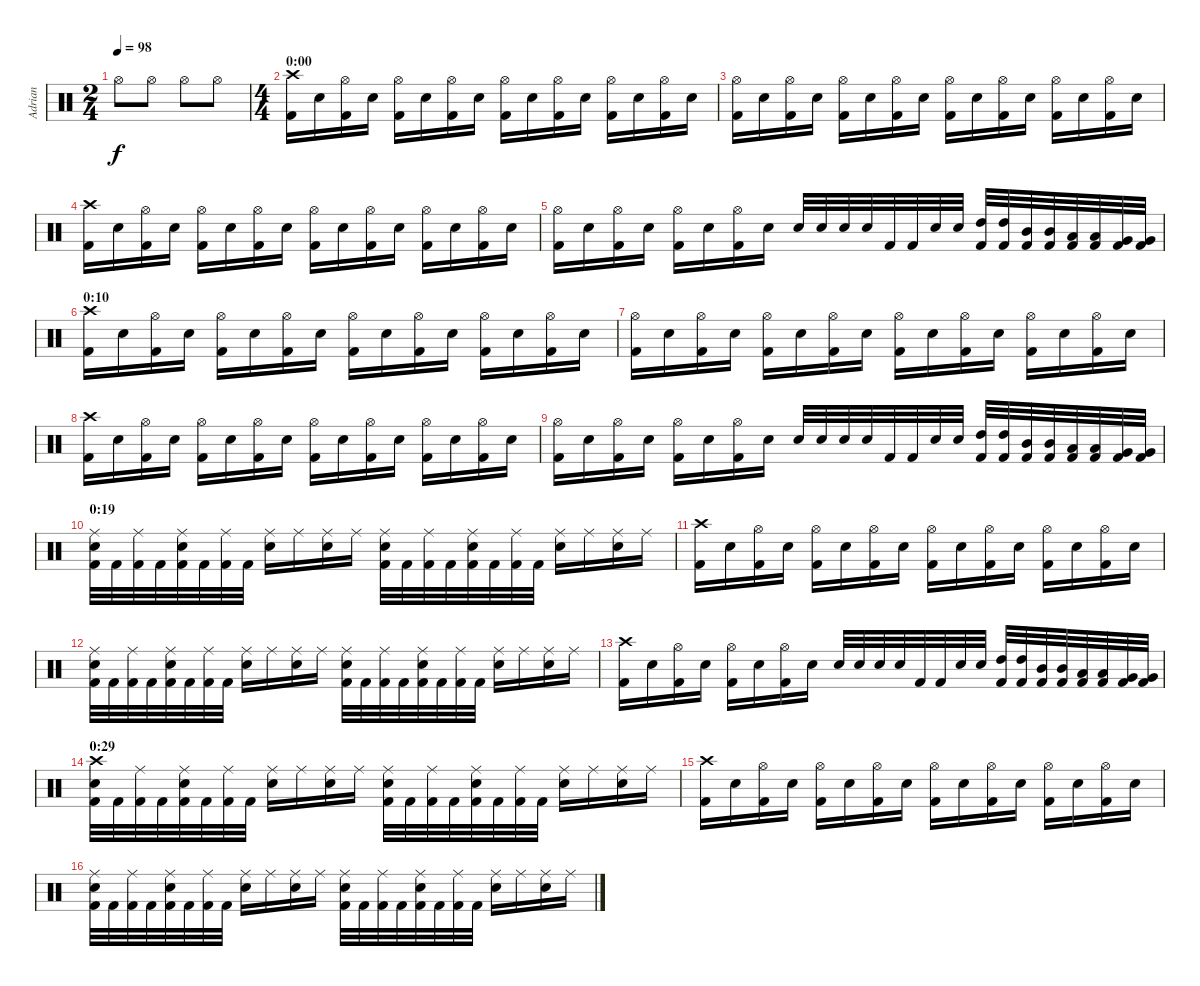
\track ("Adrian" "Adrian") {instrument percussion}
\staff {score}
\articulation defaults
\ts (2 4)
\tempo 98
\clef neutral
\ks c "Hi-Hat (open)".8{dy f} "Hi-Hat (open)".8 "Hi-Hat (open)".8 "Hi-Hat (open)".8
|
\ts (4 4)
\section ("" "0:00")
("Kick (hit) 2" "Crash high (hit)").16 "Snare (hit) 2".16 ("Kick (hit) 2" "Hi-Hat (open)").16 "Snare (hit) 2".16 ("Kick (hit) 2" "Hi-Hat (open)").16 "Snare (hit) 2".16 ("Kick (hit) 2" "Hi-Hat (open)").16 "Snare (hit) 2".16 ("Kick (hit) 2" "Hi-Hat (open)").16 "Snare (hit) 2".16 ("Kick (hit) 2" "Hi-Hat (open)").16 "Snare (hit) 2".16 ("Kick (hit) 2" "Hi-Hat (open)").16 "Snare (hit) 2".16 ("Kick (hit) 2" "Hi-Hat (open)").16 "Snare (hit) 2".16 |
("Kick (hit) 2" "Hi-Hat (open)").16 "Snare (hit) 2".16 ("Kick (hit) 2" "Hi-Hat (open)").16 "Snare (hit) 2".16 ("Kick (hit) 2" "Hi-Hat (open)").16 "Snare (hit) 2".16 ("Kick (hit) 2" "Hi-Hat (open)").16 "Snare (hit) 2".16 ("Kick (hit) 2" "Hi-Hat (open)").16 "Snare (hit) 2".16 ("Kick (hit) 2" "Hi-Hat (open)").16 "Snare (hit) 2".16 ("Kick (hit) 2" "Hi-Hat (open)").16 "Snare (hit) 2".16 ("Kick (hit) 2" "Hi-Hat (open)").16 "Snare (hit) 2".16 |
("Kick (hit) 2" "Crash high (hit)").16 "Snare (hit) 2".16 ("Kick (hit) 2" "Hi-Hat (open)").16 "Snare (hit) 2".16 ("Kick (hit) 2" "Hi-Hat (open)").16 "Snare (hit) 2".16 ("Kick (hit) 2" "Hi-Hat (open)").16 "Snare (hit) 2".16 ("Kick (hit) 2" "Hi-Hat (open)").16 "Snare (hit) 2".16 ("Kick (hit) 2" "Hi-Hat (open)").16 "Snare (hit) 2".16 ("Kick (hit) 2" "Hi-Hat (open)").16 "Snare (hit) 2".16 ("Kick (hit) 2" "Hi-Hat (open)").16 "Snare (hit) 2".16 |
("Kick (hit) 2" "Hi-Hat (open)").16 "Snare (hit) 2".16 ("Kick (hit) 2" "Hi-Hat (open)").16 "Snare (hit) 2".16 ("Kick (hit) 2" "Hi-Hat (open)").16 "Snare (hit) 2".16 ("Kick (hit) 2" "Hi-Hat (open)").16 "Snare (hit) 2".16 "Snare (hit) 2".32 "Snare (hit) 2".32 "Snare (hit) 2".32 "Snare (hit) 2".32 "Kick (hit) 2".32 "Kick (hit) 2".32 "Snare (hit) 2".32 "Snare (hit) 2".32 ("Kick (hit) 2" "High Tom (hit)").32 ("Kick (hit) 2" "High Tom (hit)").32 ("Kick (hit) 2" "Mid Tom (hit)").32 ("Kick (hit) 2" "Mid Tom (hit)").32 ("Kick (hit) 2" "Low Tom (hit)").32 ("Kick (hit) 2" "Low Tom (hit)").32 ("Kick (hit) 2" "Very Low Tom (hit)").32 ("Kick (hit) 2" "Very Low Tom (hit)").32 |
\section ("" "0:10")
("Kick (hit) 2" "Crash high (hit)").16 "Snare (hit) 2".16 ("Kick (hit) 2" "Hi-Hat (open)").16 "Snare (hit) 2".16 ("Kick (hit) 2" "Hi-Hat (open)").16 "Snare (hit) 2".16 ("Kick (hit) 2" "Hi-Hat (open)").16 "Snare (hit) 2".16 ("Kick (hit) 2" "Hi-Hat (open)").16 "Snare (hit) 2".16 ("Kick (hit) 2" "Hi-Hat (open)").16 "Snare (hit) 2".16 ("Kick (hit) 2" "Hi-Hat (open)").16 "Snare (hit) 2".16 ("Kick (hit) 2" "Hi-Hat (open)").16 "Snare (hit) 2".16 |
("Kick (hit) 2" "Hi-Hat (open)").16 "Snare (hit) 2".16 ("Kick (hit) 2" "Hi-Hat (open)").16 "Snare (hit) 2".16 ("Kick (hit) 2" "Hi-Hat (open)").16 "Snare (hit) 2".16 ("Kick (hit) 2" "Hi-Hat (open)").16 "Snare (hit) 2".16 ("Kick (hit) 2" "Hi-Hat (open)").16 "Snare (hit) 2".16 ("Kick (hit) 2" "Hi-Hat (open)").16 "Snare (hit) 2".16 ("Kick (hit) 2" "Hi-Hat (open)").16 "Snare (hit) 2".16 ("Kick (hit) 2" "Hi-Hat (open)").16 "Snare (hit) 2".16 |
("Kick (hit) 2" "Crash high (hit)").16 "Snare (hit) 2".16 ("Kick (hit) 2" "Hi-Hat (open)").16 "Snare (hit) 2".16 ("Kick (hit) 2" "Hi-Hat (open)").16 "Snare (hit) 2".16 ("Kick (hit) 2" "Hi-Hat (open)").16 "Snare (hit) 2".16 ("Kick (hit) 2" "Hi-Hat (open)").16 "Snare (hit) 2".16 ("Kick (hit) 2" "Hi-Hat (open)").16 "Snare (hit) 2".16 ("Kick (hit) 2" "Hi-Hat (open)").16 "Snare (hit) 2".16 ("Kick (hit) 2" "Hi-Hat (open)").16 "Snare (hit) 2".16 |
("Kick (hit) 2" "Hi-Hat (open)").16 "Snare (hit) 2".16 ("Kick (hit) 2" "Hi-Hat (open)").16 "Snare (hit) 2".16 ("Kick (hit) 2" "Hi-Hat (open)").16 "Snare (hit) 2".16 ("Kick (hit) 2" "Hi-Hat (open)").16 "Snare (hit) 2".16 "Snare (hit) 2".32 "Snare (hit) 2".32 "Snare (hit) 2".32 "Snare (hit) 2".32 "Kick (hit) 2".32 "Kick (hit) 2".32 "Snare (hit) 2".32 "Snare (hit) 2".32 ("Kick (hit) 2" "High Tom (hit)").32 ("Kick (hit) 2" "High Tom (hit)").32 ("Kick (hit) 2" "Mid Tom (hit)").32 ("Kick (hit) 2" "Mid Tom (hit)").32 ("Kick (hit) 2" "Low Tom (hit)").32 ("Kick (hit) 2" "Low Tom (hit)").32 ("Kick (hit) 2" "Very Low Tom (hit)").32 ("Kick (hit) 2" "Very Low Tom (hit)").32 |
\section ("" "0:19")
("Kick (hit) 2" "Snare (hit) 2" "Ride (middle)").32 "Kick (hit) 2".32 ("Kick (hit) 2" "Ride (middle)").32 "Kick (hit) 2".32 ("Kick (hit) 2" "Snare (hit) 2" "Ride (middle)").32 "Kick (hit) 2".32 ("Kick (hit) 2" "Ride (middle)").32 "Kick (hit) 2".32 ("Snare (hit) 2" "Ride (middle)").16 "Ride (middle)".16 ("Snare (hit) 2" "Ride (middle)").16 "Ride (middle)".16 ("Kick (hit) 2" "Snare (hit) 2" "Ride (middle)").32 "Kick (hit) 2".32 ("Kick (hit) 2" "Ride (middle)").32 "Kick (hit) 2".32 ("Kick (hit) 2" "Snare (hit) 2" "Ride (middle)").32 "Kick (hit) 2".32 ("Kick (hit) 2" "Ride (middle)").32 "Kick (hit) 2".32 ("Snare (hit) 2" "Ride (middle)").16 "Ride (middle)".16 ("Snare (hit) 2" "Ride (middle)").16 "Ride (middle)".16 |
("Kick (hit) 2" "Crash high (hit)").16 "Snare (hit) 2".16 ("Kick (hit) 2" "Hi-Hat (open)").16 "Snare (hit) 2".16 ("Kick (hit) 2" "Hi-Hat (open)").16 "Snare (hit) 2".16 ("Kick (hit) 2" "Hi-Hat (open)").16 "Snare (hit) 2".16 ("Kick (hit) 2" "Hi-Hat (open)").16 "Snare (hit) 2".16 ("Kick (hit) 2" "Hi-Hat (open)").16 "Snare (hit) 2".16 ("Kick (hit) 2" "Hi-Hat (open)").16 "Snare (hit) 2".16 ("Kick (hit) 2" "Hi-Hat (open)").16 "Snare (hit) 2".16 |
("Kick (hit) 2" "Snare (hit) 2" "Ride (middle)").32 "Kick (hit) 2".32 ("Kick (hit) 2" "Ride (middle)").32 "Kick (hit) 2".32 ("Kick (hit) 2" "Snare (hit) 2" "Ride (middle)").32 "Kick (hit) 2".32 ("Kick (hit) 2" "Ride (middle)").32 "Kick (hit) 2".32 ("Snare (hit) 2" "Ride (middle)").16 "Ride (middle)".16 ("Snare (hit) 2" "Ride (middle)").16 "Ride (middle)".16 ("Kick (hit) 2" "Snare (hit) 2" "Ride (middle)").32 "Kick (hit) 2".32 ("Kick (hit) 2" "Ride (middle)").32 "Kick (hit) 2".32 ("Kick (hit) 2" "Snare (hit) 2" "Ride (middle)").32 "Kick (hit) 2".32 ("Kick (hit) 2" "Ride (middle)").32 "Kick (hit) 2".32 ("Snare (hit) 2" "Ride (middle)").16 "Ride (middle)".16 ("Snare (hit) 2" "Ride (middle)").16 "Ride (middle)".16 |
("Kick (hit) 2" "Crash high (hit)").16 "Snare (hit) 2".16 ("Kick (hit) 2" "Hi-Hat (open)").16 "Snare (hit) 2".16 ("Kick (hit) 2" "Hi-Hat (open)").16 "Snare (hit) 2".16 ("Kick (hit) 2" "Hi-Hat (open)").16 "Snare (hit) 2".16 "Snare (hit) 2".32 "Snare (hit) 2".32 "Snare (hit) 2".32 "Snare (hit) 2".32 "Kick (hit) 2".32 "Kick (hit) 2".32 "Snare (hit) 2".32 "Snare (hit) 2".32 ("Kick (hit) 2" "High Tom (hit)").32 ("Kick (hit) 2" "High Tom (hit)").32 ("Kick (hit) 2" "Mid Tom (hit)").32 ("Kick (hit) 2" "Mid Tom (hit)").32 ("Kick (hit) 2" "Low Tom (hit)").32 ("Kick (hit) 2" "Low Tom (hit)").32 ("Kick (hit) 2" "Very Low Tom (hit)").32 ("Kick (hit) 2" "Very Low Tom (hit)").32 |
\section ("" "0:29")
("Kick (hit) 2" "Snare (hit) 2" "Crash high (hit)").32 "Kick (hit) 2".32 ("Kick (hit) 2" "Ride (middle)").32 "Kick (hit) 2".32 ("Kick (hit) 2" "Snare (hit) 2" "Ride (middle)").32 "Kick (hit) 2".32 ("Kick (hit) 2" "Ride (middle)").32 "Kick (hit) 2".32 ("Snare (hit) 2" "Ride (middle)").16 "Ride (middle)".16 ("Snare (hit) 2" "Ride (middle)").16 "Ride (middle)".16 ("Kick (hit) 2" "Snare (hit) 2" "Ride (middle)").32 "Kick (hit) 2".32 ("Kick (hit) 2" "Ride (middle)").32 "Kick (hit) 2".32 ("Kick (hit) 2" "Snare (hit) 2" "Ride (middle)").32 "Kick (hit) 2".32 ("Kick (hit) 2" "Ride (middle)").32 "Kick (hit) 2".32 ("Snare (hit) 2" "Ride (middle)").16 "Ride (middle)".16 ("Snare (hit) 2" "Ride (middle)").16 "Ride (middle)".16 |
("Kick (hit) 2" "Crash high (hit)").16 "Snare (hit) 2".16 ("Kick (hit) 2" "Hi-Hat (open)").16 "Snare (hit) 2".16 ("Kick (hit) 2" "Hi-Hat (open)").16 "Snare (hit) 2".16 ("Kick (hit) 2" "Hi-Hat (open)").16 "Snare (hit) 2".16 ("Kick (hit) 2" "Hi-Hat (open)").16 "Snare (hit) 2".16 ("Kick (hit) 2" "Hi-Hat (open)").16 "Snare (hit) 2".16 ("Kick (hit) 2" "Hi-Hat (open)").16 "Snare (hit) 2".16 ("Kick (hit) 2" "Hi-Hat (open)").16 "Snare (hit) 2".16 |
("Kick (hit) 2" "Snare (hit) 2" "Ride (middle)").32 "Kick (hit) 2".32 ("Kick (hit) 2" "Ride (middle)").32 "Kick (hit) 2".32 ("Kick (hit) 2" "Snare (hit) 2" "Ride (middle)").32 "Kick (hit) 2".32 ("Kick (hit) 2" "Ride (middle)").32 "Kick (hit) 2".32 ("Snare (hit) 2" "Ride (middle)").16 "Ride (middle)".16 ("Snare (hit) 2" "Ride (middle)").16 "Ride (middle)".16 ("Kick (hit) 2" "Snare (hit) 2" "Ride (middle)").32 "Kick (hit) 2".32 ("Kick (hit) 2" "Ride (middle)").32 "Kick (hit) 2".32 ("Kick (hit) 2" "Snare (hit) 2" "Ride (middle)").32 "Kick (hit) 2".32 ("Kick (hit) 2" "Ride (middle)").32 "Kick (hit) 2".32 ("Snare (hit) 2" "Ride (middle)").16 "Ride (middle)".16 ("Snare (hit) 2" "Ride (middle)").16 "Ride (middle)".16
